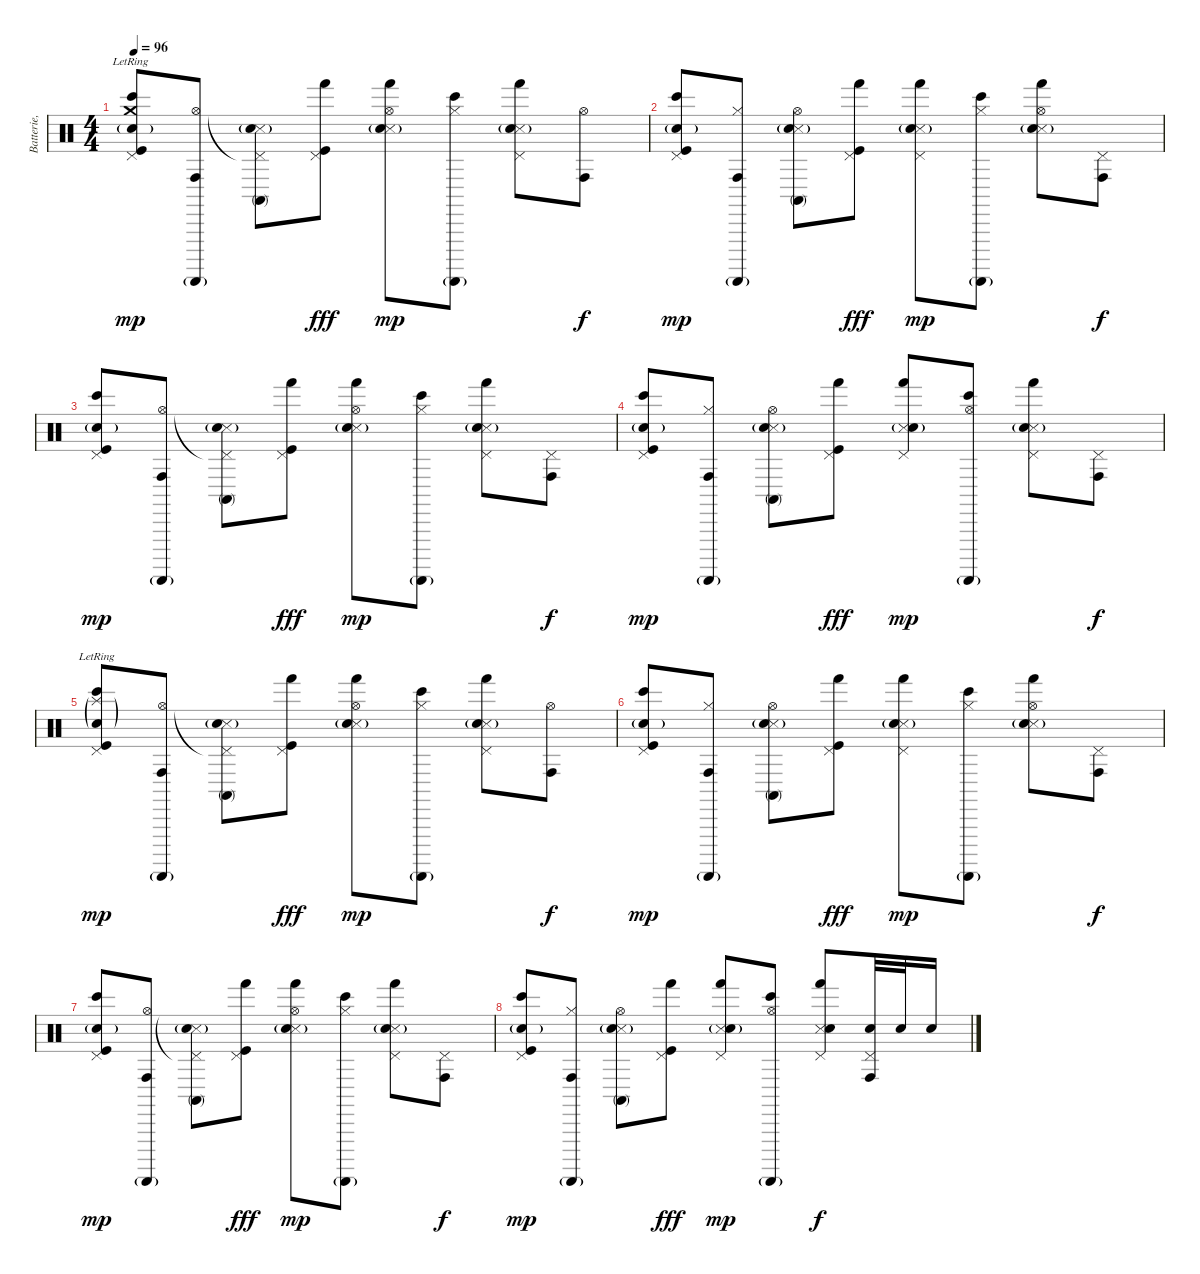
\track ("Batterie, percu." "Batterie, ") {instrument percussion}
\staff {score}
\articulation defaults
\ts (4 4)
\tempo 96
\clef neutral
\ks c
("Pedal Hi-Hat (hit)" "Bongo High (hit)" "Kick (hit)" "Snare (hit) 2"{g} "Crash medium (hit)"{lr}).8{dy mp} ("Hi-Hat (open)" "Conga high (hit)" "Guiro (scrap-return)"{g}).8 ("Pedal Hi-Hat (hit)"{t} "Conga high (mute)" "Snare (side stick) 3" "Snare (hit) 2"{g}).8 ("Pedal Hi-Hat (hit)" "Hand (hit)" "Kick (hit)").8{dy fff} ("Hi-Hat (open)" "Hand (hit)" "Snare (side stick) 3" "Snare (hit) 2"{g}).8{dy mp} ("Hi-Hat (closed)" "Bongo High (hit)" "Guiro (scrap-return)"{g}).8 ("Pedal Hi-Hat (hit)" "Hand (hit)" "Snare (side stick) 3" "Snare (hit) 2"{g}).8 ("Hi-Hat (open)" "Conga high (hit)").8{dy f} |
("Pedal Hi-Hat (hit)" "Bongo High (hit)" "Kick (hit)" "Snare (hit) 2"{g}).8{dy mp} ("Hi-Hat (closed)" "Conga high (hit)" "Guiro (scrap-return)"{g}).8 ("Hi-Hat (open)" "Conga high (mute)" "Snare (side stick) 3" "Snare (hit) 2"{g}).8 ("Pedal Hi-Hat (hit)" "Hand (hit)" "Kick (hit)").8{dy fff} ("Pedal Hi-Hat (hit)" "Hand (hit)" "Snare (side stick) 3" "Snare (hit) 2"{g}).8{dy mp} ("Hi-Hat (closed)" "Bongo High (hit)" "Guiro (scrap-return)"{g}).8 ("Hi-Hat (open)" "Hand (hit)" "Snare (side stick) 3" "Snare (hit) 2"{g}).8 ("Pedal Hi-Hat (hit)" "Conga high (hit)").8{dy f} |
("Pedal Hi-Hat (hit)" "Bongo High (hit)" "Kick (hit)" "Snare (hit) 2"{g}).8{dy mp} ("Hi-Hat (open)" "Conga high (hit)" "Guiro (scrap-return)"{g}).8 ("Pedal Hi-Hat (hit)"{t} "Conga high (mute)" "Snare (side stick) 3" "Snare (hit) 2"{g}).8 ("Pedal Hi-Hat (hit)" "Hand (hit)" "Kick (hit)").8{dy fff} ("Hi-Hat (open)" "Hand (hit)" "Snare (side stick) 3" "Snare (hit) 2"{g}).8{dy mp} ("Hi-Hat (closed)" "Bongo High (hit)" "Guiro (scrap-return)"{g}).8 ("Pedal Hi-Hat (hit)" "Hand (hit)" "Snare (side stick) 3" "Snare (hit) 2"{g}).8 ("Pedal Hi-Hat (hit)" "Conga high (hit)").8{dy f} |
("Pedal Hi-Hat (hit)" "Bongo High (hit)" "Kick (hit)" "Snare (hit) 2"{g}).8{dy mp} ("Hi-Hat (closed)" "Conga high (hit)" "Guiro (scrap-return)"{g}).8 ("Hi-Hat (open)" "Conga high (mute)" "Snare (side stick) 3" "Snare (hit) 2"{g}).8 ("Pedal Hi-Hat (hit)" "Hand (hit)" "Kick (hit)").8{dy fff} ("Pedal Hi-Hat (hit)" "Hand (hit)" "Snare (side stick) 3" "Snare (hit) 2"{g}).8{dy mp} ("Hi-Hat (open)" "Bongo High (hit)" "Guiro (scrap-return)"{g}).8 ("Pedal Hi-Hat (hit)" "Hand (hit)" "Snare (side stick) 3" "Snare (hit) 2"{g}).8 ("Pedal Hi-Hat (hit)" "Conga high (hit)").8{dy f} |
("Pedal Hi-Hat (hit)" "Bongo High (hit)" "Kick (hit)" "Snare (hit) 2"{g} "Splash (hit)"{g lr}).8{dy mp} ("Hi-Hat (open)" "Conga high (hit)" "Guiro (scrap-return)"{g}).8 ("Pedal Hi-Hat (hit)"{t} "Conga high (mute)" "Snare (side stick) 3" "Snare (hit) 2"{g}).8 ("Pedal Hi-Hat (hit)" "Hand (hit)" "Kick (hit)").8{dy fff} ("Hi-Hat (open)" "Hand (hit)" "Snare (side stick) 3" "Snare (hit) 2"{g}).8{dy mp} ("Hi-Hat (closed)" "Bongo High (hit)" "Guiro (scrap-return)"{g}).8 ("Pedal Hi-Hat (hit)" "Hand (hit)" "Snare (side stick) 3" "Snare (hit) 2"{g}).8 ("Hi-Hat (open)" "Conga high (hit)").8{dy f} |
("Pedal Hi-Hat (hit)" "Bongo High (hit)" "Kick (hit)" "Snare (hit) 2"{g}).8{dy mp} ("Hi-Hat (closed)" "Conga high (hit)" "Guiro (scrap-return)"{g}).8 ("Hi-Hat (open)" "Conga high (mute)" "Snare (side stick) 3" "Snare (hit) 2"{g}).8 ("Pedal Hi-Hat (hit)" "Hand (hit)" "Kick (hit)").8{dy fff} ("Pedal Hi-Hat (hit)" "Hand (hit)" "Snare (side stick) 3" "Snare (hit) 2"{g}).8{dy mp} ("Hi-Hat (closed)" "Bongo High (hit)" "Guiro (scrap-return)"{g}).8 ("Hi-Hat (open)" "Hand (hit)" "Snare (side stick) 3" "Snare (hit) 2"{g}).8 ("Pedal Hi-Hat (hit)" "Conga high (hit)").8{dy f} |
("Pedal Hi-Hat (hit)" "Bongo High (hit)" "Kick (hit)" "Snare (hit) 2"{g}).8{dy mp} ("Hi-Hat (open)" "Conga high (hit)" "Guiro (scrap-return)"{g}).8 ("Pedal Hi-Hat (hit)"{t} "Conga high (mute)" "Snare (side stick) 3" "Snare (hit) 2"{g}).8 ("Pedal Hi-Hat (hit)" "Hand (hit)" "Kick (hit)").8{dy fff} ("Hi-Hat (open)" "Hand (hit)" "Snare (side stick) 3" "Snare (hit) 2"{g}).8{dy mp} ("Hi-Hat (closed)" "Bongo High (hit)" "Guiro (scrap-return)"{g}).8 ("Pedal Hi-Hat (hit)" "Hand (hit)" "Snare (side stick) 3" "Snare (hit) 2"{g}).8 ("Pedal Hi-Hat (hit)" "Conga high (hit)").8{dy f} |
("Pedal Hi-Hat (hit)" "Bongo High (hit)" "Kick (hit)" "Snare (hit) 2"{g}).8{dy mp} ("Hi-Hat (closed)" "Conga high (hit)" "Guiro (scrap-return)"{g}).8 ("Hi-Hat (open)" "Conga high (mute)" "Snare (side stick) 3" "Snare (hit) 2"{g}).8 ("Pedal Hi-Hat (hit)" "Hand (hit)" "Kick (hit)").8{dy fff} ("Pedal Hi-Hat (hit)" "Hand (hit)" "Snare (side stick) 3" "Snare (hit) 2"{g}).8{dy mp} ("Hi-Hat (open)" "Bongo High (hit)" "Guiro (scrap-return)"{g}).8 ("Pedal Hi-Hat (hit)" "Hand (hit)" "Snare (side stick) 3" "Electric Snare (hit)").8{dy f} ("Pedal Hi-Hat (hit)" "Conga high (hit)" "Electric Snare (hit)").32 "Electric Snare (hit)".32 "Electric Snare (hit)".16
